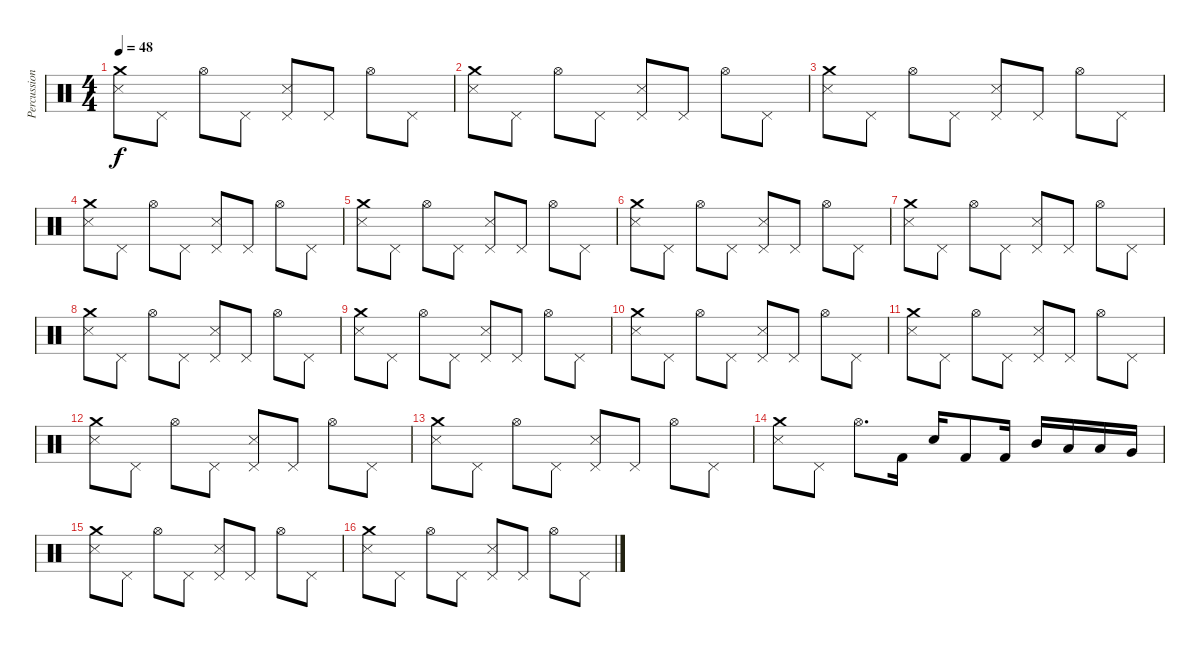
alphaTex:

\track ("Percussion" "Percussion") {instrument percussion}
\staff {score}
\articulation defaults
\ts (4 4)
\tempo 48
\clef neutral
\ks c
("Crash medium (hit)" "Metronome (hit)").8{dy f} "Pedal Hi-Hat (hit)".8 "Hi-Hat (open)".8 "Pedal Hi-Hat (hit)".8 ("Pedal Hi-Hat (hit)" "Metronome (hit)").8 "Pedal Hi-Hat (hit)".8 "Hi-Hat (open)".8 "Pedal Hi-Hat (hit)".8 |
("Crash medium (hit)" "Metronome (hit)").8 "Pedal Hi-Hat (hit)".8 "Hi-Hat (open)".8 "Pedal Hi-Hat (hit)".8 ("Pedal Hi-Hat (hit)" "Metronome (hit)").8 "Pedal Hi-Hat (hit)".8 "Hi-Hat (open)".8 "Pedal Hi-Hat (hit)".8 |
("Crash medium (hit)" "Metronome (hit)").8 "Pedal Hi-Hat (hit)".8 "Hi-Hat (open)".8 "Pedal Hi-Hat (hit)".8 ("Pedal Hi-Hat (hit)" "Metronome (hit)").8 "Pedal Hi-Hat (hit)".8 "Hi-Hat (open)".8 "Pedal Hi-Hat (hit)".8 |
("Crash medium (hit)" "Metronome (hit)").8 "Pedal Hi-Hat (hit)".8 "Hi-Hat (open)".8 "Pedal Hi-Hat (hit)".8 ("Pedal Hi-Hat (hit)" "Metronome (hit)").8 "Pedal Hi-Hat (hit)".8 "Hi-Hat (open)".8 "Pedal Hi-Hat (hit)".8 |
("Crash medium (hit)" "Metronome (hit)").8 "Pedal Hi-Hat (hit)".8 "Hi-Hat (open)".8 "Pedal Hi-Hat (hit)".8 ("Pedal Hi-Hat (hit)" "Metronome (hit)").8 "Pedal Hi-Hat (hit)".8 "Hi-Hat (open)".8 "Pedal Hi-Hat (hit)".8 |
("Crash medium (hit)" "Metronome (hit)").8 "Pedal Hi-Hat (hit)".8 "Hi-Hat (open)".8 "Pedal Hi-Hat (hit)".8 ("Pedal Hi-Hat (hit)" "Metronome (hit)").8 "Pedal Hi-Hat (hit)".8 "Hi-Hat (open)".8 "Pedal Hi-Hat (hit)".8 |
("Crash medium (hit)" "Metronome (hit)").8 "Pedal Hi-Hat (hit)".8 "Hi-Hat (open)".8 "Pedal Hi-Hat (hit)".8 ("Pedal Hi-Hat (hit)" "Metronome (hit)").8 "Pedal Hi-Hat (hit)".8 "Hi-Hat (open)".8 "Pedal Hi-Hat (hit)".8 |
("Crash medium (hit)" "Metronome (hit)").8 "Pedal Hi-Hat (hit)".8 "Hi-Hat (open)".8 "Pedal Hi-Hat (hit)".8 ("Pedal Hi-Hat (hit)" "Metronome (hit)").8 "Pedal Hi-Hat (hit)".8 "Hi-Hat (open)".8 "Pedal Hi-Hat (hit)".8 |
("Crash medium (hit)" "Metronome (hit)").8 "Pedal Hi-Hat (hit)".8 "Hi-Hat (open)".8 "Pedal Hi-Hat (hit)".8 ("Pedal Hi-Hat (hit)" "Metronome (hit)").8 "Pedal Hi-Hat (hit)".8 "Hi-Hat (open)".8 "Pedal Hi-Hat (hit)".8 |
("Crash medium (hit)" "Metronome (hit)").8 "Pedal Hi-Hat (hit)".8 "Hi-Hat (open)".8 "Pedal Hi-Hat (hit)".8 ("Pedal Hi-Hat (hit)" "Metronome (hit)").8 "Pedal Hi-Hat (hit)".8 "Hi-Hat (open)".8 "Pedal Hi-Hat (hit)".8 |
("Crash medium (hit)" "Metronome (hit)").8 "Pedal Hi-Hat (hit)".8 "Hi-Hat (open)".8 "Pedal Hi-Hat (hit)".8 ("Pedal Hi-Hat (hit)" "Metronome (hit)").8 "Pedal Hi-Hat (hit)".8 "Hi-Hat (open)".8 "Pedal Hi-Hat (hit)".8 |
("Crash medium (hit)" "Metronome (hit)").8 "Pedal Hi-Hat (hit)".8 "Hi-Hat (open)".8 "Pedal Hi-Hat (hit)".8 ("Pedal Hi-Hat (hit)" "Metronome (hit)").8 "Pedal Hi-Hat (hit)".8 "Hi-Hat (open)".8 "Pedal Hi-Hat (hit)".8 |
("Crash medium (hit)" "Metronome (hit)").8 "Pedal Hi-Hat (hit)".8 "Hi-Hat (open)".8 "Pedal Hi-Hat (hit)".8 ("Pedal Hi-Hat (hit)" "Metronome (hit)").8 "Pedal Hi-Hat (hit)".8 "Hi-Hat (open)".8 "Pedal Hi-Hat (hit)".8 |
("Crash medium (hit)" "Metronome (hit)").8 "Pedal Hi-Hat (hit)".8 "Hi-Hat (open)".8{d} "Kick (hit) 2".16 "Snare (hit) 2".16 "Kick (hit) 2".8 "Kick (hit) 2".16 "Mid Tom (hit)".16 "Low Tom (hit)".16 "Low Tom (hit)".16 "Very Low Tom (hit)".16 |
("Crash medium (hit)" "Metronome (hit)").8 "Pedal Hi-Hat (hit)".8 "Hi-Hat (open)".8 "Pedal Hi-Hat (hit)".8 ("Pedal Hi-Hat (hit)" "Metronome (hit)").8 "Pedal Hi-Hat (hit)".8 "Hi-Hat (open)".8 "Pedal Hi-Hat (hit)".8 |
("Crash medium (hit)" "Metronome (hit)").8 "Pedal Hi-Hat (hit)".8 "Hi-Hat (open)".8 "Pedal Hi-Hat (hit)".8 ("Pedal Hi-Hat (hit)" "Metronome (hit)").8 "Pedal Hi-Hat (hit)".8 "Hi-Hat (open)".8 "Pedal Hi-Hat (hit)".8
